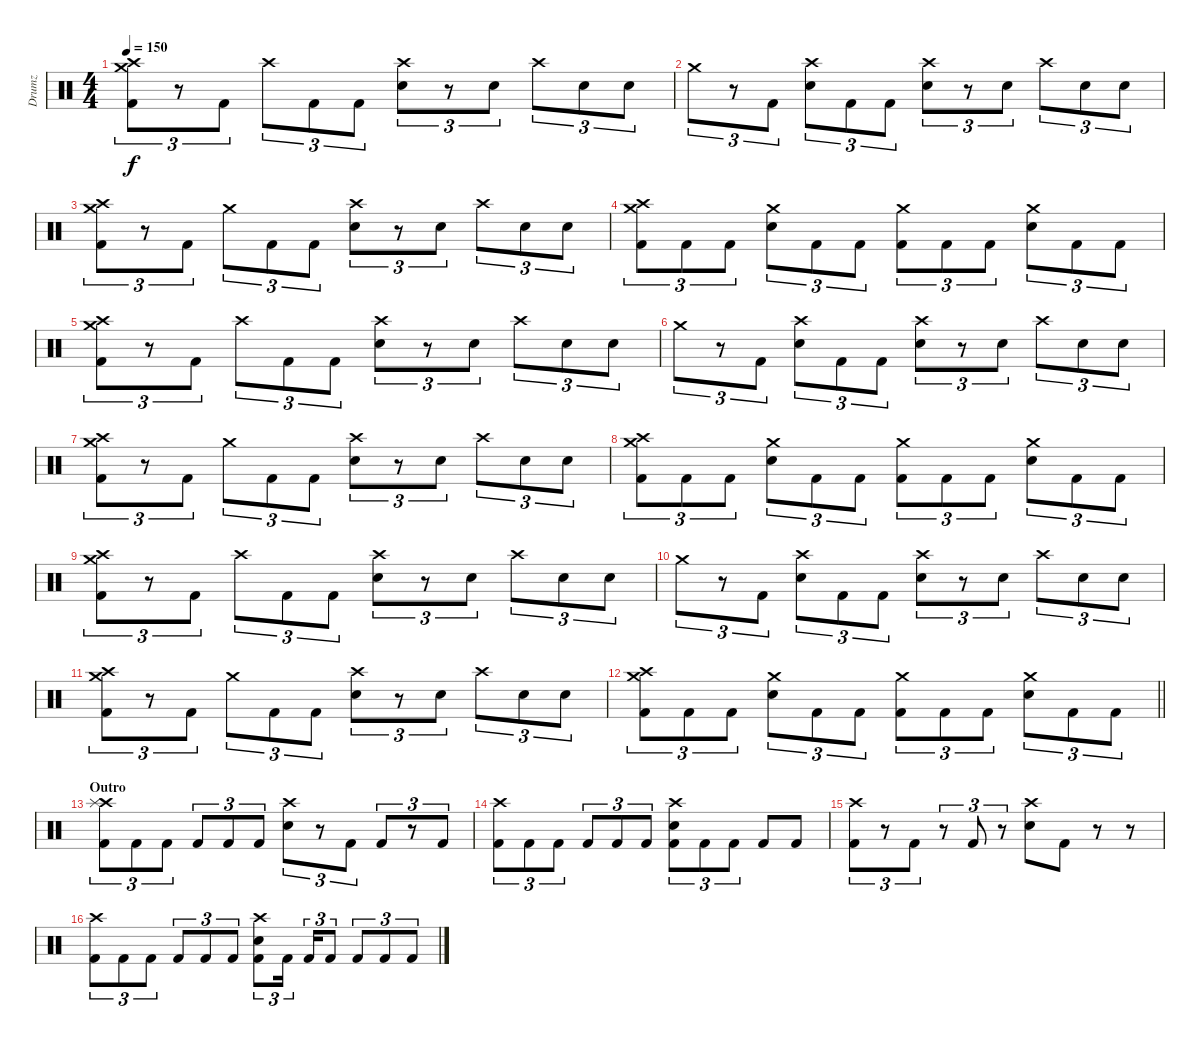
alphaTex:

\track ("Drumz" "Drumz") {instrument percussion}
\staff {score}
\articulation defaults
\ts (4 4)
\tempo 150
\clef neutral
\ks c
("Crash high (hit)" "Crash medium (hit)" "Kick (hit) 2").8{tu (3 2) dy f} r.8{tu (3 2)} "Kick (hit) 2".8{tu (3 2)} "Crash high (hit)".8{tu (3 2)} "Kick (hit) 2".8{tu (3 2)} "Kick (hit) 2".8{tu (3 2)} ("Crash high (hit)" "Snare (hit) 2").8{tu (3 2)} r.8{tu (3 2)} "Snare (hit) 2".8{tu (3 2)} "Crash high (hit)".8{tu (3 2)} "Snare (hit) 2".8{tu (3 2)} "Snare (hit) 2".8{tu (3 2)} |
"Crash medium (hit)".8{tu (3 2)} r.8{tu (3 2)} "Kick (hit) 2".8{tu (3 2)} ("Snare (hit) 2" "Crash high (hit)").8{tu (3 2)} "Kick (hit) 2".8{tu (3 2)} "Kick (hit) 2".8{tu (3 2)} ("Crash high (hit)" "Snare (hit) 2").8{tu (3 2)} r.8{tu (3 2)} "Snare (hit) 2".8{tu (3 2)} "Crash high (hit)".8{tu (3 2)} "Snare (hit) 2".8{tu (3 2)} "Snare (hit) 2".8{tu (3 2)} |
("Crash medium (hit)" "Crash high (hit)" "Kick (hit) 2").8{tu (3 2)} r.8{tu (3 2)} "Kick (hit) 2".8{tu (3 2)} "Crash medium (hit)".8{tu (3 2)} "Kick (hit) 2".8{tu (3 2)} "Kick (hit) 2".8{tu (3 2)} ("Crash high (hit)" "Snare (hit) 2").8{tu (3 2)} r.8{tu (3 2)} "Snare (hit) 2".8{tu (3 2)} "Crash high (hit)".8{tu (3 2)} "Snare (hit) 2".8{tu (3 2)} "Snare (hit) 2".8{tu (3 2)} |
("Crash medium (hit)" "Crash high (hit)" "Kick (hit) 2").8{tu (3 2)} "Kick (hit) 2".8{tu (3 2)} "Kick (hit) 2".8{tu (3 2)} ("Crash medium (hit)" "Snare (hit) 2").8{tu (3 2)} "Kick (hit) 2".8{tu (3 2)} "Kick (hit) 2".8{tu (3 2)} ("Kick (hit) 2" "Crash medium (hit)").8{tu (3 2)} "Kick (hit) 2".8{tu (3 2)} "Kick (hit) 2".8{tu (3 2)} ("Crash medium (hit)" "Snare (hit) 2").8{tu (3 2)} "Kick (hit) 2".8{tu (3 2)} "Kick (hit) 2".8{tu (3 2)} |
("Crash high (hit)" "Crash medium (hit)" "Kick (hit) 2").8{tu (3 2)} r.8{tu (3 2)} "Kick (hit) 2".8{tu (3 2)} "Crash high (hit)".8{tu (3 2)} "Kick (hit) 2".8{tu (3 2)} "Kick (hit) 2".8{tu (3 2)} ("Crash high (hit)" "Snare (hit) 2").8{tu (3 2)} r.8{tu (3 2)} "Snare (hit) 2".8{tu (3 2)} "Crash high (hit)".8{tu (3 2)} "Snare (hit) 2".8{tu (3 2)} "Snare (hit) 2".8{tu (3 2)} |
"Crash medium (hit)".8{tu (3 2)} r.8{tu (3 2)} "Kick (hit) 2".8{tu (3 2)} ("Snare (hit) 2" "Crash high (hit)").8{tu (3 2)} "Kick (hit) 2".8{tu (3 2)} "Kick (hit) 2".8{tu (3 2)} ("Crash high (hit)" "Snare (hit) 2").8{tu (3 2)} r.8{tu (3 2)} "Snare (hit) 2".8{tu (3 2)} "Crash high (hit)".8{tu (3 2)} "Snare (hit) 2".8{tu (3 2)} "Snare (hit) 2".8{tu (3 2)} |
("Crash medium (hit)" "Crash high (hit)" "Kick (hit) 2").8{tu (3 2)} r.8{tu (3 2)} "Kick (hit) 2".8{tu (3 2)} "Crash medium (hit)".8{tu (3 2)} "Kick (hit) 2".8{tu (3 2)} "Kick (hit) 2".8{tu (3 2)} ("Crash high (hit)" "Snare (hit) 2").8{tu (3 2)} r.8{tu (3 2)} "Snare (hit) 2".8{tu (3 2)} "Crash high (hit)".8{tu (3 2)} "Snare (hit) 2".8{tu (3 2)} "Snare (hit) 2".8{tu (3 2)} |
("Crash medium (hit)" "Crash high (hit)" "Kick (hit) 2").8{tu (3 2)} "Kick (hit) 2".8{tu (3 2)} "Kick (hit) 2".8{tu (3 2)} ("Crash medium (hit)" "Snare (hit) 2").8{tu (3 2)} "Kick (hit) 2".8{tu (3 2)} "Kick (hit) 2".8{tu (3 2)} ("Kick (hit) 2" "Crash medium (hit)").8{tu (3 2)} "Kick (hit) 2".8{tu (3 2)} "Kick (hit) 2".8{tu (3 2)} ("Crash medium (hit)" "Snare (hit) 2").8{tu (3 2)} "Kick (hit) 2".8{tu (3 2)} "Kick (hit) 2".8{tu (3 2)} |
("Crash high (hit)" "Crash medium (hit)" "Kick (hit) 2").8{tu (3 2)} r.8{tu (3 2)} "Kick (hit) 2".8{tu (3 2)} "Crash high (hit)".8{tu (3 2)} "Kick (hit) 2".8{tu (3 2)} "Kick (hit) 2".8{tu (3 2)} ("Crash high (hit)" "Snare (hit) 2").8{tu (3 2)} r.8{tu (3 2)} "Snare (hit) 2".8{tu (3 2)} "Crash high (hit)".8{tu (3 2)} "Snare (hit) 2".8{tu (3 2)} "Snare (hit) 2".8{tu (3 2)} |
"Crash medium (hit)".8{tu (3 2)} r.8{tu (3 2)} "Kick (hit) 2".8{tu (3 2)} ("Snare (hit) 2" "Crash high (hit)").8{tu (3 2)} "Kick (hit) 2".8{tu (3 2)} "Kick (hit) 2".8{tu (3 2)} ("Crash high (hit)" "Snare (hit) 2").8{tu (3 2)} r.8{tu (3 2)} "Snare (hit) 2".8{tu (3 2)} "Crash high (hit)".8{tu (3 2)} "Snare (hit) 2".8{tu (3 2)} "Snare (hit) 2".8{tu (3 2)} |
("Crash medium (hit)" "Crash high (hit)" "Kick (hit) 2").8{tu (3 2)} r.8{tu (3 2)} "Kick (hit) 2".8{tu (3 2)} "Crash medium (hit)".8{tu (3 2)} "Kick (hit) 2".8{tu (3 2)} "Kick (hit) 2".8{tu (3 2)} ("Crash high (hit)" "Snare (hit) 2").8{tu (3 2)} r.8{tu (3 2)} "Snare (hit) 2".8{tu (3 2)} "Crash high (hit)".8{tu (3 2)} "Snare (hit) 2".8{tu (3 2)} "Snare (hit) 2".8{tu (3 2)} |
\barLineRight lightlight
("Crash medium (hit)" "Crash high (hit)" "Kick (hit) 2").8{tu (3 2)} "Kick (hit) 2".8{tu (3 2)} "Kick (hit) 2".8{tu (3 2)} ("Crash medium (hit)" "Snare (hit) 2").8{tu (3 2)} "Kick (hit) 2".8{tu (3 2)} "Kick (hit) 2".8{tu (3 2)} ("Kick (hit) 2" "Crash medium (hit)").8{tu (3 2)} "Kick (hit) 2".8{tu (3 2)} "Kick (hit) 2".8{tu (3 2)} ("Crash medium (hit)" "Snare (hit) 2").8{tu (3 2)} "Kick (hit) 2".8{tu (3 2)} "Kick (hit) 2".8{tu (3 2)} |
\section ("" "Outro")
("Kick (hit) 2" "Crash high (hit)" "Splash (hit)").8{tu (3 2)} "Kick (hit) 2".8{tu (3 2)} "Kick (hit) 2".8{tu (3 2)} "Kick (hit) 2".8{tu (3 2)} "Kick (hit) 2".8{tu (3 2)} "Kick (hit) 2".8{tu (3 2)} ("Crash high (hit)" "Snare (hit) 2").8{tu (3 2)} r.8{tu (3 2)} "Kick (hit) 2".8{tu (3 2)} "Kick (hit) 2".8{tu (3 2)} r.8{tu (3 2)} "Kick (hit) 2".8{tu (3 2)} |
("Kick (hit) 2" "Crash high (hit)").8{tu (3 2)} "Kick (hit) 2".8{tu (3 2)} "Kick (hit) 2".8{tu (3 2)} "Kick (hit) 2".8{tu (3 2)} "Kick (hit) 2".8{tu (3 2)} "Kick (hit) 2".8{tu (3 2)} ("Crash high (hit)" "Snare (hit) 2" "Kick (hit) 2").8{tu (3 2)} "Kick (hit) 2".8{tu (3 2)} "Kick (hit) 2".8{tu (3 2)} "Kick (hit) 2".8 "Kick (hit) 2".8 |
("Crash high (hit)" "Kick (hit) 2").8{tu (3 2)} r.8{tu (3 2)} "Kick (hit) 2".8{tu (3 2)} r.8{tu (3 2)} "Kick (hit) 2".8{tu (3 2)} r.8{tu (3 2)} ("Crash high (hit)" "Snare (hit) 2").8 "Kick (hit) 2".8 r.8 r.8 |
("Kick (hit) 2" "Crash high (hit)").8{tu (3 2)} "Kick (hit) 2".8{tu (3 2)} "Kick (hit) 2".8{tu (3 2)} "Kick (hit) 2".8{tu (3 2)} "Kick (hit) 2".8{tu (3 2)} "Kick (hit) 2".8{tu (3 2)} ("Crash high (hit)" "Snare (hit) 2" "Kick (hit) 2").8{tu (3 2)} "Kick (hit) 2".16{tu (3 2) beam splitsecondary} "Kick (hit) 2".16{tu (3 2)} "Kick (hit) 2".8{tu (3 2)} "Kick (hit) 2".8{tu (3 2)} "Kick (hit) 2".8{tu (3 2)} "Kick (hit) 2".8{tu (3 2)}
